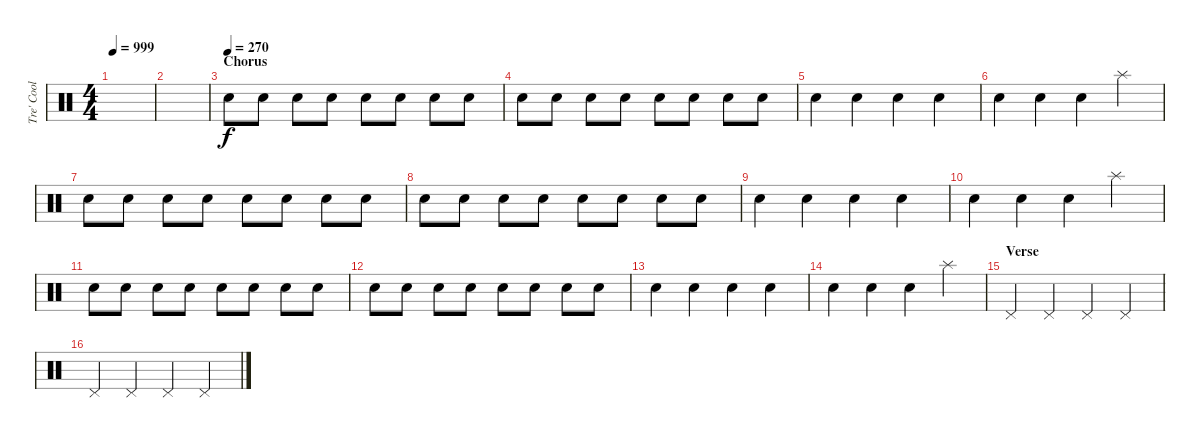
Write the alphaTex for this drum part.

\track ("Tre' Cool" "Tre' Cool") {instrument percussion}
\staff {score}
\articulation defaults
\ts (4 4)
\tempo 999
\clef neutral
\ks c
|
|
\section ("" "Chorus")
\tempo (270)
"Snare (hit) 2".8 "Snare (hit) 2".8 "Snare (hit) 2".8 "Snare (hit) 2".8 "Snare (hit) 2".8 "Snare (hit) 2".8 "Snare (hit) 2".8 "Snare (hit) 2".8 |
"Snare (hit) 2".8 "Snare (hit) 2".8 "Snare (hit) 2".8 "Snare (hit) 2".8 "Snare (hit) 2".8 "Snare (hit) 2".8 "Snare (hit) 2".8 "Snare (hit) 2".8 |
"Snare (hit) 2".4 "Snare (hit) 2".4 "Snare (hit) 2".4 "Snare (hit) 2".4 |
"Snare (hit) 2".4 "Snare (hit) 2".4 "Snare (hit) 2".4 "Splash (hit)".4 |
"Snare (hit) 2".8 "Snare (hit) 2".8 "Snare (hit) 2".8 "Snare (hit) 2".8 "Snare (hit) 2".8 "Snare (hit) 2".8 "Snare (hit) 2".8 "Snare (hit) 2".8 |
"Snare (hit) 2".8 "Snare (hit) 2".8 "Snare (hit) 2".8 "Snare (hit) 2".8 "Snare (hit) 2".8 "Snare (hit) 2".8 "Snare (hit) 2".8 "Snare (hit) 2".8 |
"Snare (hit) 2".4 "Snare (hit) 2".4 "Snare (hit) 2".4 "Snare (hit) 2".4 |
"Snare (hit) 2".4 "Snare (hit) 2".4 "Snare (hit) 2".4 "Splash (hit)".4 |
"Snare (hit) 2".8 "Snare (hit) 2".8 "Snare (hit) 2".8 "Snare (hit) 2".8 "Snare (hit) 2".8 "Snare (hit) 2".8 "Snare (hit) 2".8 "Snare (hit) 2".8 |
"Snare (hit) 2".8 "Snare (hit) 2".8 "Snare (hit) 2".8 "Snare (hit) 2".8 "Snare (hit) 2".8 "Snare (hit) 2".8 "Snare (hit) 2".8 "Snare (hit) 2".8 |
"Snare (hit) 2".4 "Snare (hit) 2".4 "Snare (hit) 2".4 "Snare (hit) 2".4 |
"Snare (hit) 2".4 "Snare (hit) 2".4 "Snare (hit) 2".4 "Splash (hit)".4 |
\section ("" "Verse")
"Pedal Hi-Hat (hit)".4 "Pedal Hi-Hat (hit)".4 "Pedal Hi-Hat (hit)".4 "Pedal Hi-Hat (hit)".4 |
"Pedal Hi-Hat (hit)".4 "Pedal Hi-Hat (hit)".4 "Pedal Hi-Hat (hit)".4 "Pedal Hi-Hat (hit)".4
